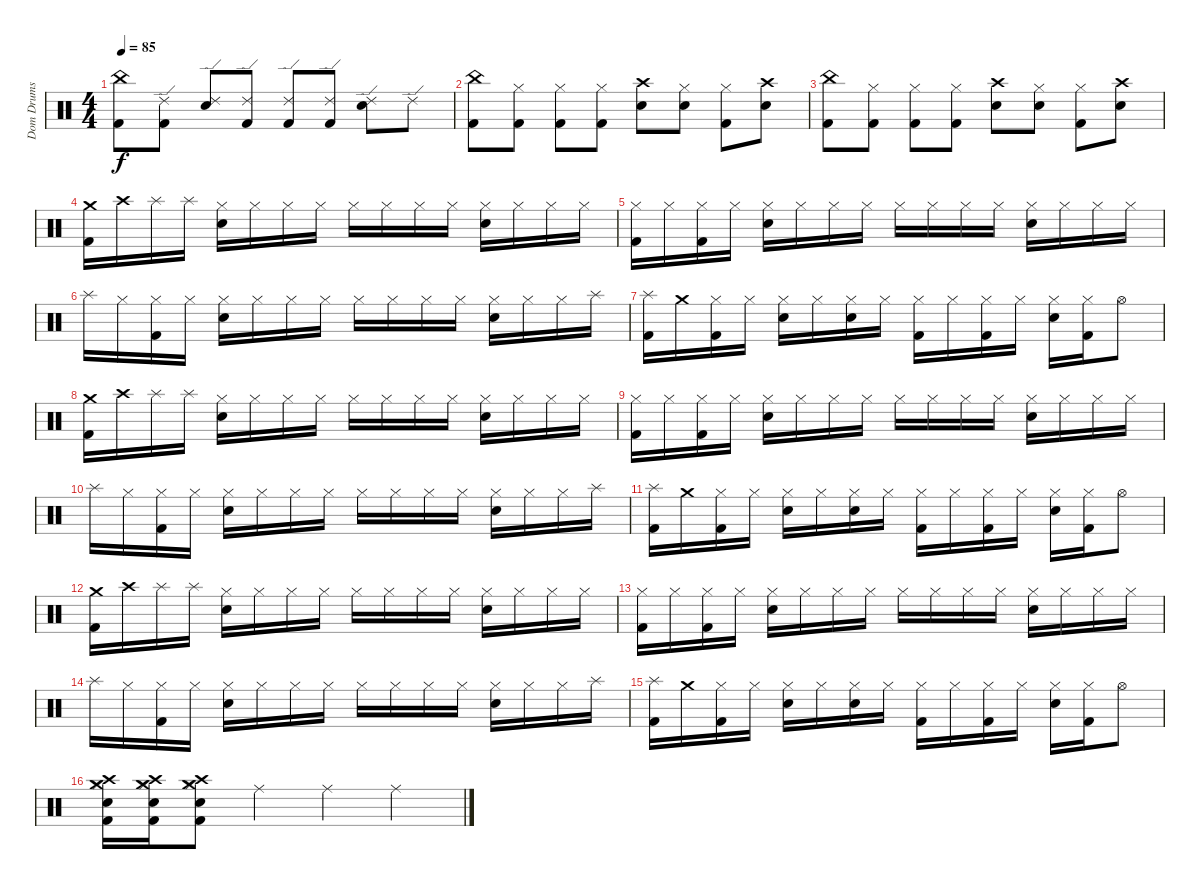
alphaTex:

\track ("Dom Drums" "Dom Drums") {instrument percussion}
\staff {score}
\articulation defaults
\ts (4 4)
\tempo 85
\clef neutral
\ks c
("China (hit)" "Kick (hit) 2").8{dy f} ("Ride (edge) 2" "Kick (hit) 2").8 ("Ride (edge) 2" "Snare (hit) 2").8 ("Ride (edge) 2" "Kick (hit) 2").8 ("Ride (edge) 2" "Kick (hit) 2").8 ("Ride (edge) 2" "Kick (hit) 2").8 ("Ride (edge) 2" "Snare (hit) 2").8 "Ride (edge) 2".8 |
("China (hit)" "Kick (hit) 2").8 ("Hi-Hat (closed)" "Kick (hit) 2").8 ("Hi-Hat (closed)" "Kick (hit) 2").8 ("Hi-Hat (closed)" "Kick (hit) 2").8 ("Crash high (hit)" "Snare (hit) 2").8 ("Hi-Hat (closed)" "Snare (hit) 2").8 ("Hi-Hat (closed)" "Kick (hit) 2").8 ("Crash high (hit)" "Snare (hit) 2").8 |
("China (hit)" "Kick (hit) 2").8 ("Hi-Hat (closed)" "Kick (hit) 2").8 ("Hi-Hat (closed)" "Kick (hit) 2").8 ("Hi-Hat (closed)" "Kick (hit) 2").8 ("Crash high (hit)" "Snare (hit) 2").8 ("Hi-Hat (closed)" "Snare (hit) 2").8 ("Hi-Hat (closed)" "Kick (hit) 2").8 ("Crash high (hit)" "Snare (hit) 2").8 |
("Crash medium (hit)" "Kick (hit) 2").16 "Crash high (hit)".16 "Splash (hit)".16 "Splash (hit)".16 ("Hi-Hat (closed)" "Snare (hit) 2").16 "Hi-Hat (closed)".16 "Hi-Hat (closed)".16 "Hi-Hat (closed)".16 "Hi-Hat (closed)".16 "Hi-Hat (closed)".16 "Hi-Hat (closed)".16 "Hi-Hat (closed)".16 ("Hi-Hat (closed)" "Snare (hit) 2").16 "Hi-Hat (closed)".16 "Hi-Hat (closed)".16 "Hi-Hat (closed)".16 |
("Hi-Hat (closed)" "Kick (hit) 2").16 "Hi-Hat (closed)".16 ("Hi-Hat (closed)" "Kick (hit) 2").16 "Hi-Hat (closed)".16 ("Hi-Hat (closed)" "Snare (hit) 2").16 "Hi-Hat (closed)".16 "Hi-Hat (closed)".16 "Hi-Hat (closed)".16 "Hi-Hat (closed)".16 "Hi-Hat (closed)".16 "Hi-Hat (closed)".16 "Hi-Hat (closed)".16 ("Hi-Hat (closed)" "Snare (hit) 2").16 "Hi-Hat (closed)".16 "Hi-Hat (closed)".16 "Hi-Hat (closed)".16 |
"Splash (hit)".16 "Hi-Hat (closed)".16 ("Hi-Hat (closed)" "Kick (hit) 2").16 "Hi-Hat (closed)".16 ("Hi-Hat (closed)" "Snare (hit) 2").16 "Hi-Hat (closed)".16 "Hi-Hat (closed)".16 "Hi-Hat (closed)".16 "Hi-Hat (closed)".16 "Hi-Hat (closed)".16 "Hi-Hat (closed)".16 "Hi-Hat (closed)".16 ("Hi-Hat (closed)" "Snare (hit) 2").16 "Hi-Hat (closed)".16 "Hi-Hat (closed)".16 "Splash (hit)".16 |
("Splash (hit)" "Kick (hit) 2").16 "Crash medium (hit)".16 ("Hi-Hat (closed)" "Kick (hit) 2").16 "Hi-Hat (closed)".16 ("Hi-Hat (closed)" "Snare (hit) 2").16 "Hi-Hat (closed)".16 ("Hi-Hat (closed)" "Snare (hit) 2").16 "Hi-Hat (closed)".16 ("Hi-Hat (closed)" "Kick (hit) 2").16 "Hi-Hat (closed)".16 ("Hi-Hat (closed)" "Kick (hit) 2").16 "Hi-Hat (closed)".16 ("Hi-Hat (closed)" "Snare (hit) 2").16 ("Hi-Hat (closed)" "Kick (hit) 2").16 "Hi-Hat (open)".8 |
("Crash medium (hit)" "Kick (hit) 2").16 "Crash high (hit)".16 "Splash (hit)".16 "Splash (hit)".16 ("Hi-Hat (closed)" "Snare (hit) 2").16 "Hi-Hat (closed)".16 "Hi-Hat (closed)".16 "Hi-Hat (closed)".16 "Hi-Hat (closed)".16 "Hi-Hat (closed)".16 "Hi-Hat (closed)".16 "Hi-Hat (closed)".16 ("Hi-Hat (closed)" "Snare (hit) 2").16 "Hi-Hat (closed)".16 "Hi-Hat (closed)".16 "Hi-Hat (closed)".16 |
("Hi-Hat (closed)" "Kick (hit) 2").16 "Hi-Hat (closed)".16 ("Hi-Hat (closed)" "Kick (hit) 2").16 "Hi-Hat (closed)".16 ("Hi-Hat (closed)" "Snare (hit) 2").16 "Hi-Hat (closed)".16 "Hi-Hat (closed)".16 "Hi-Hat (closed)".16 "Hi-Hat (closed)".16 "Hi-Hat (closed)".16 "Hi-Hat (closed)".16 "Hi-Hat (closed)".16 ("Hi-Hat (closed)" "Snare (hit) 2").16 "Hi-Hat (closed)".16 "Hi-Hat (closed)".16 "Hi-Hat (closed)".16 |
"Splash (hit)".16 "Hi-Hat (closed)".16 ("Hi-Hat (closed)" "Kick (hit) 2").16 "Hi-Hat (closed)".16 ("Hi-Hat (closed)" "Snare (hit) 2").16 "Hi-Hat (closed)".16 "Hi-Hat (closed)".16 "Hi-Hat (closed)".16 "Hi-Hat (closed)".16 "Hi-Hat (closed)".16 "Hi-Hat (closed)".16 "Hi-Hat (closed)".16 ("Hi-Hat (closed)" "Snare (hit) 2").16 "Hi-Hat (closed)".16 "Hi-Hat (closed)".16 "Splash (hit)".16 |
("Splash (hit)" "Kick (hit) 2").16 "Crash medium (hit)".16 ("Hi-Hat (closed)" "Kick (hit) 2").16 "Hi-Hat (closed)".16 ("Hi-Hat (closed)" "Snare (hit) 2").16 "Hi-Hat (closed)".16 ("Hi-Hat (closed)" "Snare (hit) 2").16 "Hi-Hat (closed)".16 ("Hi-Hat (closed)" "Kick (hit) 2").16 "Hi-Hat (closed)".16 ("Hi-Hat (closed)" "Kick (hit) 2").16 "Hi-Hat (closed)".16 ("Hi-Hat (closed)" "Snare (hit) 2").16 ("Hi-Hat (closed)" "Kick (hit) 2").16 "Hi-Hat (open)".8 |
("Crash medium (hit)" "Kick (hit) 2").16 "Crash high (hit)".16 "Splash (hit)".16 "Splash (hit)".16 ("Hi-Hat (closed)" "Snare (hit) 2").16 "Hi-Hat (closed)".16 "Hi-Hat (closed)".16 "Hi-Hat (closed)".16 "Hi-Hat (closed)".16 "Hi-Hat (closed)".16 "Hi-Hat (closed)".16 "Hi-Hat (closed)".16 ("Hi-Hat (closed)" "Snare (hit) 2").16 "Hi-Hat (closed)".16 "Hi-Hat (closed)".16 "Hi-Hat (closed)".16 |
("Hi-Hat (closed)" "Kick (hit) 2").16 "Hi-Hat (closed)".16 ("Hi-Hat (closed)" "Kick (hit) 2").16 "Hi-Hat (closed)".16 ("Hi-Hat (closed)" "Snare (hit) 2").16 "Hi-Hat (closed)".16 "Hi-Hat (closed)".16 "Hi-Hat (closed)".16 "Hi-Hat (closed)".16 "Hi-Hat (closed)".16 "Hi-Hat (closed)".16 "Hi-Hat (closed)".16 ("Hi-Hat (closed)" "Snare (hit) 2").16 "Hi-Hat (closed)".16 "Hi-Hat (closed)".16 "Hi-Hat (closed)".16 |
"Splash (hit)".16 "Hi-Hat (closed)".16 ("Hi-Hat (closed)" "Kick (hit) 2").16 "Hi-Hat (closed)".16 ("Hi-Hat (closed)" "Snare (hit) 2").16 "Hi-Hat (closed)".16 "Hi-Hat (closed)".16 "Hi-Hat (closed)".16 "Hi-Hat (closed)".16 "Hi-Hat (closed)".16 "Hi-Hat (closed)".16 "Hi-Hat (closed)".16 ("Hi-Hat (closed)" "Snare (hit) 2").16 "Hi-Hat (closed)".16 "Hi-Hat (closed)".16 "Splash (hit)".16 |
("Splash (hit)" "Kick (hit) 2").16 "Crash medium (hit)".16 ("Hi-Hat (closed)" "Kick (hit) 2").16 "Hi-Hat (closed)".16 ("Hi-Hat (closed)" "Snare (hit) 2").16 "Hi-Hat (closed)".16 ("Hi-Hat (closed)" "Snare (hit) 2").16 "Hi-Hat (closed)".16 ("Hi-Hat (closed)" "Kick (hit) 2").16 "Hi-Hat (closed)".16 ("Hi-Hat (closed)" "Kick (hit) 2").16 "Hi-Hat (closed)".16 ("Hi-Hat (closed)" "Snare (hit) 2").16 ("Hi-Hat (closed)" "Kick (hit) 2").16 "Hi-Hat (open)".8 |
("Hi-Hat (closed)" "Crash medium (hit)" "Snare (hit) 2" "Crash high (hit)" "Kick (hit) 2").16 ("Hi-Hat (closed)" "Crash medium (hit)" "Snare (hit) 2" "Crash high (hit)" "Kick (hit) 2").16 ("Hi-Hat (closed)" "Crash medium (hit)" "Snare (hit) 2" "Crash high (hit)" "Kick (hit) 2").8 "Ride (middle)".4 "Ride (middle)".4 "Ride (middle)".4
